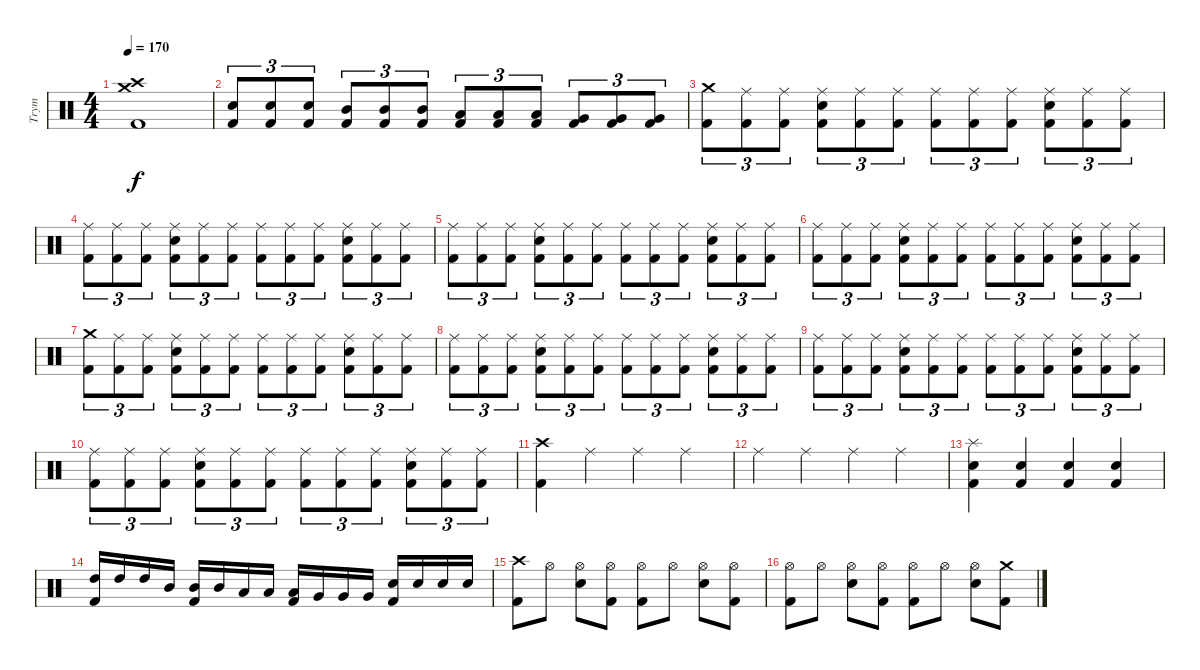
\track ("Trym" "Trym") {instrument percussion}
\staff {score}
\articulation defaults
\ts (4 4)
\tempo 170
\clef neutral
\ks c
("Kick (hit) 2" "Crash high (hit)" "Crash medium (hit)").1{dy f} |
("Kick (hit) 2" "Electric Snare (hit)").8{tu (3 2)} ("Kick (hit) 2" "Electric Snare (hit)").8{tu (3 2)} ("Kick (hit) 2" "Electric Snare (hit)").8{tu (3 2)} ("Kick (hit) 2" "Mid Tom (hit)").8{tu (3 2)} ("Kick (hit) 2" "Mid Tom (hit)").8{tu (3 2)} ("Kick (hit) 2" "Mid Tom (hit)").8{tu (3 2)} ("Kick (hit) 2" "Low Tom (hit)").8{tu (3 2)} ("Kick (hit) 2" "Low Tom (hit)").8{tu (3 2)} ("Kick (hit) 2" "Low Tom (hit)").8{tu (3 2)} ("Kick (hit) 2" "Very Low Tom (hit)").8{tu (3 2)} ("Kick (hit) 2" "Very Low Tom (hit)").8{tu (3 2)} ("Kick (hit) 2" "Very Low Tom (hit)").8{tu (3 2)} |
("Kick (hit) 2" "Crash medium (hit)").8{tu (3 2)} ("Kick (hit) 2" "Ride (middle)").8{tu (3 2)} ("Kick (hit) 2" "Ride (middle)").8{tu (3 2)} ("Kick (hit) 2" "Electric Snare (hit)" "Ride (middle)").8{tu (3 2)} ("Kick (hit) 2" "Ride (middle)").8{tu (3 2)} ("Kick (hit) 2" "Ride (middle)").8{tu (3 2)} ("Kick (hit) 2" "Ride (middle)").8{tu (3 2)} ("Kick (hit) 2" "Ride (middle)").8{tu (3 2)} ("Kick (hit) 2" "Ride (middle)").8{tu (3 2)} ("Kick (hit) 2" "Electric Snare (hit)" "Ride (middle)").8{tu (3 2)} ("Kick (hit) 2" "Ride (middle)").8{tu (3 2)} ("Kick (hit) 2" "Ride (middle)").8{tu (3 2)} |
("Kick (hit) 2" "Ride (middle)").8{tu (3 2)} ("Kick (hit) 2" "Ride (middle)").8{tu (3 2)} ("Kick (hit) 2" "Ride (middle)").8{tu (3 2)} ("Kick (hit) 2" "Electric Snare (hit)" "Ride (middle)").8{tu (3 2)} ("Kick (hit) 2" "Ride (middle)").8{tu (3 2)} ("Kick (hit) 2" "Ride (middle)").8{tu (3 2)} ("Kick (hit) 2" "Ride (middle)").8{tu (3 2)} ("Kick (hit) 2" "Ride (middle)").8{tu (3 2)} ("Kick (hit) 2" "Ride (middle)").8{tu (3 2)} ("Kick (hit) 2" "Electric Snare (hit)" "Ride (middle)").8{tu (3 2)} ("Kick (hit) 2" "Ride (middle)").8{tu (3 2)} ("Kick (hit) 2" "Ride (middle)").8{tu (3 2)} |
("Kick (hit) 2" "Ride (middle)").8{tu (3 2)} ("Kick (hit) 2" "Ride (middle)").8{tu (3 2)} ("Kick (hit) 2" "Ride (middle)").8{tu (3 2)} ("Kick (hit) 2" "Electric Snare (hit)" "Ride (middle)").8{tu (3 2)} ("Kick (hit) 2" "Ride (middle)").8{tu (3 2)} ("Kick (hit) 2" "Ride (middle)").8{tu (3 2)} ("Kick (hit) 2" "Ride (middle)").8{tu (3 2)} ("Kick (hit) 2" "Ride (middle)").8{tu (3 2)} ("Kick (hit) 2" "Ride (middle)").8{tu (3 2)} ("Kick (hit) 2" "Electric Snare (hit)" "Ride (middle)").8{tu (3 2)} ("Kick (hit) 2" "Ride (middle)").8{tu (3 2)} ("Kick (hit) 2" "Ride (middle)").8{tu (3 2)} |
("Kick (hit) 2" "Ride (middle)").8{tu (3 2)} ("Kick (hit) 2" "Ride (middle)").8{tu (3 2)} ("Kick (hit) 2" "Ride (middle)").8{tu (3 2)} ("Kick (hit) 2" "Electric Snare (hit)" "Ride (middle)").8{tu (3 2)} ("Kick (hit) 2" "Ride (middle)").8{tu (3 2)} ("Kick (hit) 2" "Ride (middle)").8{tu (3 2)} ("Kick (hit) 2" "Ride (middle)").8{tu (3 2)} ("Kick (hit) 2" "Ride (middle)").8{tu (3 2)} ("Kick (hit) 2" "Ride (middle)").8{tu (3 2)} ("Kick (hit) 2" "Electric Snare (hit)" "Ride (middle)").8{tu (3 2)} ("Kick (hit) 2" "Ride (middle)").8{tu (3 2)} ("Kick (hit) 2" "Ride (middle)").8{tu (3 2)} |
("Kick (hit) 2" "Crash medium (hit)").8{tu (3 2)} ("Kick (hit) 2" "Ride (middle)").8{tu (3 2)} ("Kick (hit) 2" "Ride (middle)").8{tu (3 2)} ("Kick (hit) 2" "Electric Snare (hit)" "Ride (middle)").8{tu (3 2)} ("Kick (hit) 2" "Ride (middle)").8{tu (3 2)} ("Kick (hit) 2" "Ride (middle)").8{tu (3 2)} ("Kick (hit) 2" "Ride (middle)").8{tu (3 2)} ("Kick (hit) 2" "Ride (middle)").8{tu (3 2)} ("Kick (hit) 2" "Ride (middle)").8{tu (3 2)} ("Kick (hit) 2" "Electric Snare (hit)" "Ride (middle)").8{tu (3 2)} ("Kick (hit) 2" "Ride (middle)").8{tu (3 2)} ("Kick (hit) 2" "Ride (middle)").8{tu (3 2)} |
("Kick (hit) 2" "Ride (middle)").8{tu (3 2)} ("Kick (hit) 2" "Ride (middle)").8{tu (3 2)} ("Kick (hit) 2" "Ride (middle)").8{tu (3 2)} ("Kick (hit) 2" "Electric Snare (hit)" "Ride (middle)").8{tu (3 2)} ("Kick (hit) 2" "Ride (middle)").8{tu (3 2)} ("Kick (hit) 2" "Ride (middle)").8{tu (3 2)} ("Kick (hit) 2" "Ride (middle)").8{tu (3 2)} ("Kick (hit) 2" "Ride (middle)").8{tu (3 2)} ("Kick (hit) 2" "Ride (middle)").8{tu (3 2)} ("Kick (hit) 2" "Electric Snare (hit)" "Ride (middle)").8{tu (3 2)} ("Kick (hit) 2" "Ride (middle)").8{tu (3 2)} ("Kick (hit) 2" "Ride (middle)").8{tu (3 2)} |
("Kick (hit) 2" "Ride (middle)").8{tu (3 2)} ("Kick (hit) 2" "Ride (middle)").8{tu (3 2)} ("Kick (hit) 2" "Ride (middle)").8{tu (3 2)} ("Kick (hit) 2" "Electric Snare (hit)" "Ride (middle)").8{tu (3 2)} ("Kick (hit) 2" "Ride (middle)").8{tu (3 2)} ("Kick (hit) 2" "Ride (middle)").8{tu (3 2)} ("Kick (hit) 2" "Ride (middle)").8{tu (3 2)} ("Kick (hit) 2" "Ride (middle)").8{tu (3 2)} ("Kick (hit) 2" "Ride (middle)").8{tu (3 2)} ("Kick (hit) 2" "Electric Snare (hit)" "Ride (middle)").8{tu (3 2)} ("Kick (hit) 2" "Ride (middle)").8{tu (3 2)} ("Kick (hit) 2" "Ride (middle)").8{tu (3 2)} |
("Kick (hit) 2" "Ride (middle)").8{tu (3 2)} ("Kick (hit) 2" "Ride (middle)").8{tu (3 2)} ("Kick (hit) 2" "Ride (middle)").8{tu (3 2)} ("Kick (hit) 2" "Electric Snare (hit)" "Ride (middle)").8{tu (3 2)} ("Kick (hit) 2" "Ride (middle)").8{tu (3 2)} ("Kick (hit) 2" "Ride (middle)").8{tu (3 2)} ("Kick (hit) 2" "Ride (middle)").8{tu (3 2)} ("Kick (hit) 2" "Ride (middle)").8{tu (3 2)} ("Kick (hit) 2" "Ride (middle)").8{tu (3 2)} ("Kick (hit) 2" "Electric Snare (hit)" "Ride (middle)").8{tu (3 2)} ("Kick (hit) 2" "Ride (middle)").8{tu (3 2)} ("Kick (hit) 2" "Ride (middle)").8{tu (3 2)} |
("Kick (hit) 2" "Crash high (hit)").4 "Ride (middle)".4 "Ride (middle)".4 "Ride (middle)".4 |
"Ride (middle)".4 "Ride (middle)".4 "Ride (middle)".4 "Ride (middle)".4 |
("Kick (hit) 2" "Electric Snare (hit)" "Splash (hit)").4 ("Kick (hit) 2" "Electric Snare (hit)").4 ("Kick (hit) 2" "Electric Snare (hit)").4 ("Kick (hit) 2" "Electric Snare (hit)").4 |
("Kick (hit) 2" "High Tom (hit)").16 "High Tom (hit)".16 "High Tom (hit)".16 "Mid Tom (hit)".16 ("Kick (hit) 2" "Mid Tom (hit)").16 "Mid Tom (hit)".16 "Low Tom (hit)".16 "Low Tom (hit)".16 ("Kick (hit) 2" "Low Tom (hit)").16 "Very Low Tom (hit)".16 "Very Low Tom (hit)".16 "Very Low Tom (hit)".16 ("Kick (hit) 2" "Electric Snare (hit)").16 "Electric Snare (hit)".16 "Electric Snare (hit)".16 "Electric Snare (hit)".16 |
("Kick (hit) 2" "Crash high (hit)").8 "Hi-Hat (open)".8 ("Electric Snare (hit)" "Hi-Hat (open)").8 ("Kick (hit) 2" "Hi-Hat (open)").8 ("Kick (hit) 2" "Hi-Hat (open)").8 "Hi-Hat (open)".8 ("Electric Snare (hit)" "Hi-Hat (open)").8 ("Kick (hit) 2" "Hi-Hat (open)").8 |
("Kick (hit) 2" "Hi-Hat (open)").8 "Hi-Hat (open)".8 ("Electric Snare (hit)" "Hi-Hat (open)").8 ("Kick (hit) 2" "Hi-Hat (open)").8 ("Kick (hit) 2" "Hi-Hat (open)").8 "Hi-Hat (open)".8 ("Electric Snare (hit)" "Hi-Hat (open)").8 ("Kick (hit) 2" "Crash medium (hit)").8
